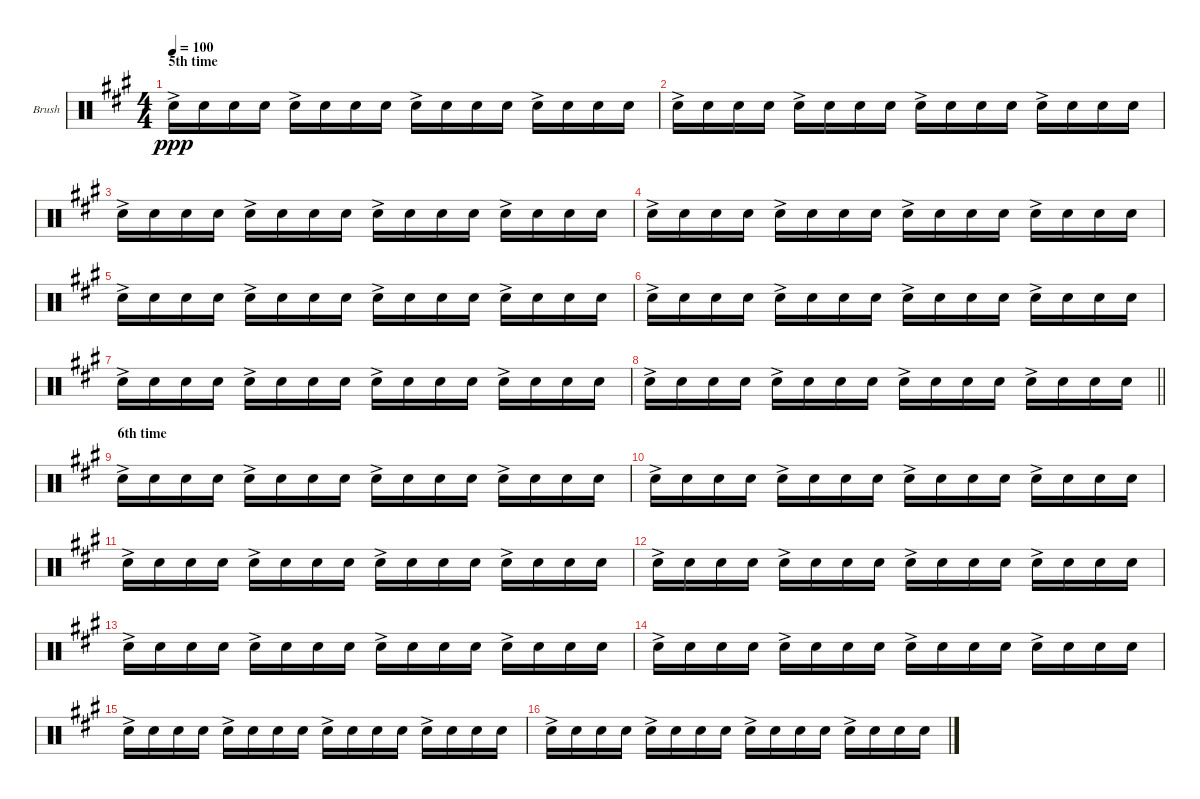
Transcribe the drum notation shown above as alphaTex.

\bracketExtendMode groupsimilarinstruments
\firstSystemTrackNameOrientation horizontal
\otherSystemsTrackNameOrientation horizontal
\track ("Brush Snare" "Brush") {instrument percussion}
\staff {score}
\articulation defaults
\ts (4 4)
\section ("" "5th time")
\tempo 100
\clef neutral
\ks f#minor "Snare (hit) 2"{ac}.16{dy ppp} "Snare (hit) 2".16 "Snare (hit) 2".16 "Snare (hit) 2".16 "Snare (hit) 2"{ac}.16 "Snare (hit) 2".16 "Snare (hit) 2".16 "Snare (hit) 2".16 "Snare (hit) 2"{ac}.16 "Snare (hit) 2".16 "Snare (hit) 2".16 "Snare (hit) 2".16 "Snare (hit) 2"{ac}.16 "Snare (hit) 2".16 "Snare (hit) 2".16 "Snare (hit) 2".16
|
"Snare (hit) 2"{ac}.16 "Snare (hit) 2".16 "Snare (hit) 2".16 "Snare (hit) 2".16 "Snare (hit) 2"{ac}.16 "Snare (hit) 2".16 "Snare (hit) 2".16 "Snare (hit) 2".16 "Snare (hit) 2"{ac}.16 "Snare (hit) 2".16 "Snare (hit) 2".16 "Snare (hit) 2".16 "Snare (hit) 2"{ac}.16 "Snare (hit) 2".16 "Snare (hit) 2".16 "Snare (hit) 2".16 |
"Snare (hit) 2"{ac}.16 "Snare (hit) 2".16 "Snare (hit) 2".16 "Snare (hit) 2".16 "Snare (hit) 2"{ac}.16 "Snare (hit) 2".16 "Snare (hit) 2".16 "Snare (hit) 2".16 "Snare (hit) 2"{ac}.16 "Snare (hit) 2".16 "Snare (hit) 2".16 "Snare (hit) 2".16 "Snare (hit) 2"{ac}.16 "Snare (hit) 2".16 "Snare (hit) 2".16 "Snare (hit) 2".16 |
"Snare (hit) 2"{ac}.16 "Snare (hit) 2".16 "Snare (hit) 2".16 "Snare (hit) 2".16 "Snare (hit) 2"{ac}.16 "Snare (hit) 2".16 "Snare (hit) 2".16 "Snare (hit) 2".16 "Snare (hit) 2"{ac}.16 "Snare (hit) 2".16 "Snare (hit) 2".16 "Snare (hit) 2".16 "Snare (hit) 2"{ac}.16 "Snare (hit) 2".16 "Snare (hit) 2".16 "Snare (hit) 2".16 |
"Snare (hit) 2"{ac}.16 "Snare (hit) 2".16 "Snare (hit) 2".16 "Snare (hit) 2".16 "Snare (hit) 2"{ac}.16 "Snare (hit) 2".16 "Snare (hit) 2".16 "Snare (hit) 2".16 "Snare (hit) 2"{ac}.16 "Snare (hit) 2".16 "Snare (hit) 2".16 "Snare (hit) 2".16 "Snare (hit) 2"{ac}.16 "Snare (hit) 2".16 "Snare (hit) 2".16 "Snare (hit) 2".16 |
"Snare (hit) 2"{ac}.16 "Snare (hit) 2".16 "Snare (hit) 2".16 "Snare (hit) 2".16 "Snare (hit) 2"{ac}.16 "Snare (hit) 2".16 "Snare (hit) 2".16 "Snare (hit) 2".16 "Snare (hit) 2"{ac}.16 "Snare (hit) 2".16 "Snare (hit) 2".16 "Snare (hit) 2".16 "Snare (hit) 2"{ac}.16 "Snare (hit) 2".16 "Snare (hit) 2".16 "Snare (hit) 2".16 |
"Snare (hit) 2"{ac}.16 "Snare (hit) 2".16 "Snare (hit) 2".16 "Snare (hit) 2".16 "Snare (hit) 2"{ac}.16 "Snare (hit) 2".16 "Snare (hit) 2".16 "Snare (hit) 2".16 "Snare (hit) 2"{ac}.16 "Snare (hit) 2".16 "Snare (hit) 2".16 "Snare (hit) 2".16 "Snare (hit) 2"{ac}.16 "Snare (hit) 2".16 "Snare (hit) 2".16 "Snare (hit) 2".16 |
\barLineRight lightlight "Snare (hit) 2"{ac}.16 "Snare (hit) 2".16 "Snare (hit) 2".16 "Snare (hit) 2".16 "Snare (hit) 2"{ac}.16 "Snare (hit) 2".16 "Snare (hit) 2".16 "Snare (hit) 2".16 "Snare (hit) 2"{ac}.16 "Snare (hit) 2".16 "Snare (hit) 2".16 "Snare (hit) 2".16 "Snare (hit) 2"{ac}.16 "Snare (hit) 2".16 "Snare (hit) 2".16 "Snare (hit) 2".16
|
\section ("" "6th time")
"Snare (hit) 2"{ac}.16 "Snare (hit) 2".16 "Snare (hit) 2".16 "Snare (hit) 2".16 "Snare (hit) 2"{ac}.16 "Snare (hit) 2".16 "Snare (hit) 2".16 "Snare (hit) 2".16 "Snare (hit) 2"{ac}.16 "Snare (hit) 2".16 "Snare (hit) 2".16 "Snare (hit) 2".16 "Snare (hit) 2"{ac}.16 "Snare (hit) 2".16 "Snare (hit) 2".16 "Snare (hit) 2".16 |
"Snare (hit) 2"{ac}.16 "Snare (hit) 2".16 "Snare (hit) 2".16 "Snare (hit) 2".16 "Snare (hit) 2"{ac}.16 "Snare (hit) 2".16 "Snare (hit) 2".16 "Snare (hit) 2".16 "Snare (hit) 2"{ac}.16 "Snare (hit) 2".16 "Snare (hit) 2".16 "Snare (hit) 2".16 "Snare (hit) 2"{ac}.16 "Snare (hit) 2".16 "Snare (hit) 2".16 "Snare (hit) 2".16 |
"Snare (hit) 2"{ac}.16 "Snare (hit) 2".16 "Snare (hit) 2".16 "Snare (hit) 2".16 "Snare (hit) 2"{ac}.16 "Snare (hit) 2".16 "Snare (hit) 2".16 "Snare (hit) 2".16 "Snare (hit) 2"{ac}.16 "Snare (hit) 2".16 "Snare (hit) 2".16 "Snare (hit) 2".16 "Snare (hit) 2"{ac}.16 "Snare (hit) 2".16 "Snare (hit) 2".16 "Snare (hit) 2".16 |
"Snare (hit) 2"{ac}.16 "Snare (hit) 2".16 "Snare (hit) 2".16 "Snare (hit) 2".16 "Snare (hit) 2"{ac}.16 "Snare (hit) 2".16 "Snare (hit) 2".16 "Snare (hit) 2".16 "Snare (hit) 2"{ac}.16 "Snare (hit) 2".16 "Snare (hit) 2".16 "Snare (hit) 2".16 "Snare (hit) 2"{ac}.16 "Snare (hit) 2".16 "Snare (hit) 2".16 "Snare (hit) 2".16 |
"Snare (hit) 2"{ac}.16 "Snare (hit) 2".16 "Snare (hit) 2".16 "Snare (hit) 2".16 "Snare (hit) 2"{ac}.16 "Snare (hit) 2".16 "Snare (hit) 2".16 "Snare (hit) 2".16 "Snare (hit) 2"{ac}.16 "Snare (hit) 2".16 "Snare (hit) 2".16 "Snare (hit) 2".16 "Snare (hit) 2"{ac}.16 "Snare (hit) 2".16 "Snare (hit) 2".16 "Snare (hit) 2".16 |
"Snare (hit) 2"{ac}.16 "Snare (hit) 2".16 "Snare (hit) 2".16 "Snare (hit) 2".16 "Snare (hit) 2"{ac}.16 "Snare (hit) 2".16 "Snare (hit) 2".16 "Snare (hit) 2".16 "Snare (hit) 2"{ac}.16 "Snare (hit) 2".16 "Snare (hit) 2".16 "Snare (hit) 2".16 "Snare (hit) 2"{ac}.16 "Snare (hit) 2".16 "Snare (hit) 2".16 "Snare (hit) 2".16 |
"Snare (hit) 2"{ac}.16 "Snare (hit) 2".16 "Snare (hit) 2".16 "Snare (hit) 2".16 "Snare (hit) 2"{ac}.16 "Snare (hit) 2".16 "Snare (hit) 2".16 "Snare (hit) 2".16 "Snare (hit) 2"{ac}.16 "Snare (hit) 2".16 "Snare (hit) 2".16 "Snare (hit) 2".16 "Snare (hit) 2"{ac}.16 "Snare (hit) 2".16 "Snare (hit) 2".16 "Snare (hit) 2".16 |
"Snare (hit) 2"{ac}.16 "Snare (hit) 2".16 "Snare (hit) 2".16 "Snare (hit) 2".16 "Snare (hit) 2"{ac}.16 "Snare (hit) 2".16 "Snare (hit) 2".16 "Snare (hit) 2".16 "Snare (hit) 2"{ac}.16 "Snare (hit) 2".16 "Snare (hit) 2".16 "Snare (hit) 2".16 "Snare (hit) 2"{ac}.16 "Snare (hit) 2".16 "Snare (hit) 2".16 "Snare (hit) 2".16
